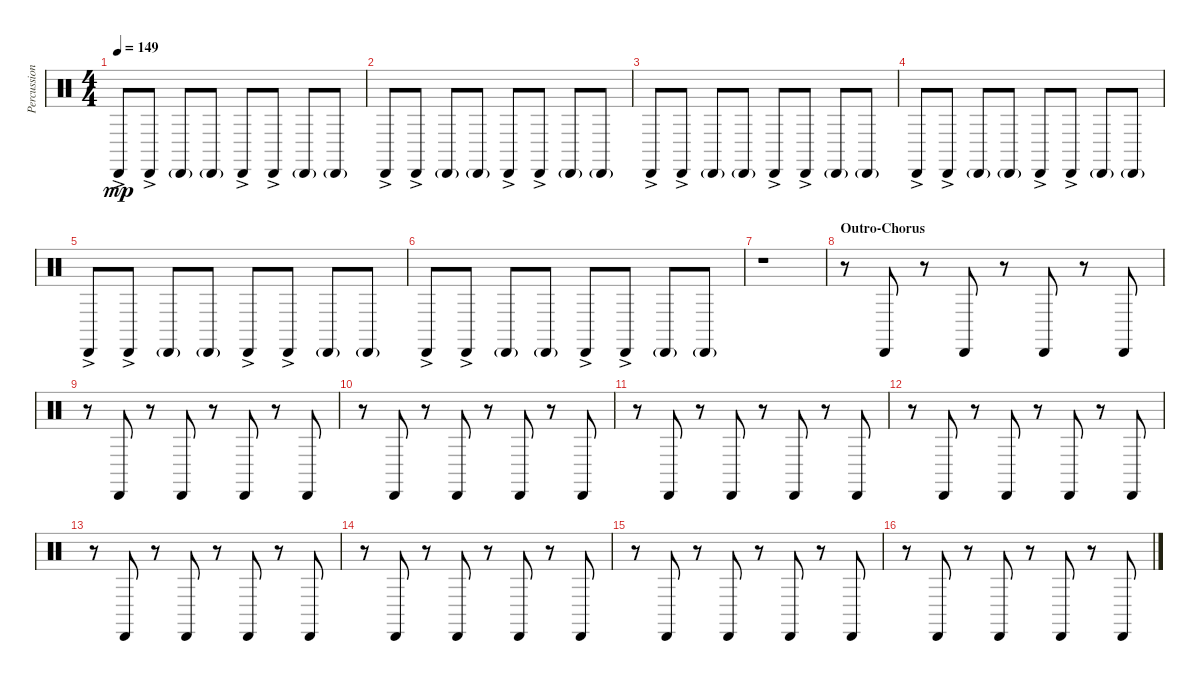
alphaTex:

\track ("Percussion 2" "Percussion") {instrument percussion}
\staff {score}
\articulation defaults
\ts (4 4)
\tempo 149
\clef neutral
\ks c "Cabasa (hit)"{ac}.8{dy mp} "Cabasa (hit)"{ac}.8 "Cabasa (hit)"{g}.8 "Cabasa (hit)"{g}.8 "Cabasa (hit)"{ac}.8 "Cabasa (hit)"{ac}.8 "Cabasa (hit)"{g}.8 "Cabasa (hit)"{g}.8
|
"Cabasa (hit)"{ac}.8 "Cabasa (hit)"{ac}.8 "Cabasa (hit)"{g}.8 "Cabasa (hit)"{g}.8 "Cabasa (hit)"{ac}.8 "Cabasa (hit)"{ac}.8 "Cabasa (hit)"{g}.8 "Cabasa (hit)"{g}.8 |
"Cabasa (hit)"{ac}.8 "Cabasa (hit)"{ac}.8 "Cabasa (hit)"{g}.8 "Cabasa (hit)"{g}.8 "Cabasa (hit)"{ac}.8 "Cabasa (hit)"{ac}.8 "Cabasa (hit)"{g}.8 "Cabasa (hit)"{g}.8 |
"Cabasa (hit)"{ac}.8 "Cabasa (hit)"{ac}.8 "Cabasa (hit)"{g}.8 "Cabasa (hit)"{g}.8 "Cabasa (hit)"{ac}.8 "Cabasa (hit)"{ac}.8 "Cabasa (hit)"{g}.8 "Cabasa (hit)"{g}.8 |
"Cabasa (hit)"{ac}.8 "Cabasa (hit)"{ac}.8 "Cabasa (hit)"{g}.8 "Cabasa (hit)"{g}.8 "Cabasa (hit)"{ac}.8 "Cabasa (hit)"{ac}.8 "Cabasa (hit)"{g}.8 "Cabasa (hit)"{g}.8 |
"Cabasa (hit)"{ac}.8 "Cabasa (hit)"{ac}.8 "Cabasa (hit)"{g}.8 "Cabasa (hit)"{g}.8 "Cabasa (hit)"{ac}.8 "Cabasa (hit)"{ac}.8 "Cabasa (hit)"{g}.8 "Cabasa (hit)"{g}.8 |
r.1 |
\section ("" "Outro-Chorus")
r.8 "Cabasa (hit)".8 r.8 "Cabasa (hit)".8 r.8 "Cabasa (hit)".8 r.8 "Cabasa (hit)".8 |
r.8 "Cabasa (hit)".8 r.8 "Cabasa (hit)".8 r.8 "Cabasa (hit)".8 r.8 "Cabasa (hit)".8 |
r.8 "Cabasa (hit)".8 r.8 "Cabasa (hit)".8 r.8 "Cabasa (hit)".8 r.8 "Cabasa (hit)".8 |
r.8 "Cabasa (hit)".8 r.8 "Cabasa (hit)".8 r.8 "Cabasa (hit)".8 r.8 "Cabasa (hit)".8 |
r.8 "Cabasa (hit)".8 r.8 "Cabasa (hit)".8 r.8 "Cabasa (hit)".8 r.8 "Cabasa (hit)".8 |
r.8 "Cabasa (hit)".8 r.8 "Cabasa (hit)".8 r.8 "Cabasa (hit)".8 r.8 "Cabasa (hit)".8 |
r.8 "Cabasa (hit)".8 r.8 "Cabasa (hit)".8 r.8 "Cabasa (hit)".8 r.8 "Cabasa (hit)".8 |
r.8 "Cabasa (hit)".8 r.8 "Cabasa (hit)".8 r.8 "Cabasa (hit)".8 r.8 "Cabasa (hit)".8 |
r.8 "Cabasa (hit)".8 r.8 "Cabasa (hit)".8 r.8 "Cabasa (hit)".8 r.8 "Cabasa (hit)".8
